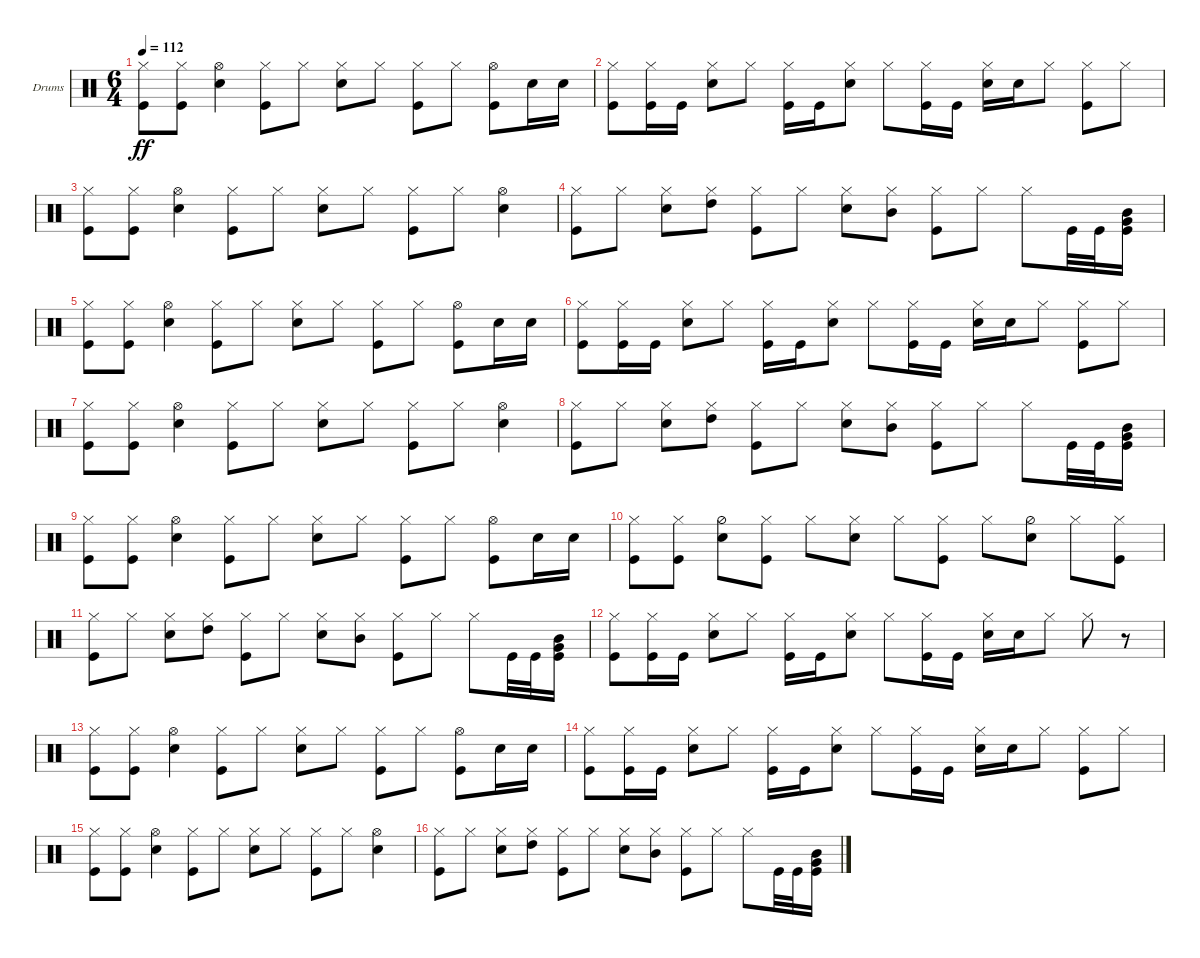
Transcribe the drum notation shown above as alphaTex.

\defaultSystemsLayout 4
\bracketExtendMode groupsimilarinstruments
\firstSystemTrackNameOrientation horizontal
\otherSystemsTrackNameOrientation horizontal
\track ("Kaleb - Drums" "Drums") {instrument percussion}
\staff {score}
\articulation defaults
\ts (6 4)
\tempo 112
\clef neutral
\ks c
("Hi-Hat (closed)" "Kick (hit)").8{dy ff} ("Hi-Hat (closed)" "Kick (hit)").8 ("Hi-Hat (open)" "Snare (hit) 2").4 ("Hi-Hat (closed)" "Kick (hit)").8 "Hi-Hat (closed)".8 ("Hi-Hat (closed)" "Snare (hit) 2").8 "Hi-Hat (closed)".8 ("Hi-Hat (closed)" "Kick (hit)").8 "Hi-Hat (closed)".8 ("Kick (hit)" "Hi-Hat (open)").8 "Snare (hit) 2".16 "Snare (hit) 2".16 |
("Kick (hit)" "Hi-Hat (closed)").8 ("Kick (hit)" "Hi-Hat (closed)").16 "Kick (hit)".16 ("Snare (hit) 2" "Hi-Hat (closed)").8 "Hi-Hat (closed)".8 ("Hi-Hat (closed)" "Kick (hit)").16 "Kick (hit)".16 ("Hi-Hat (closed)" "Snare (hit) 2").8 "Hi-Hat (closed)".8 ("Hi-Hat (closed)" "Kick (hit)").16 "Kick (hit)".16 ("Hi-Hat (closed)" "Snare (hit) 2").16 "Snare (hit) 2".16 "Hi-Hat (closed)".8 ("Hi-Hat (closed)" "Kick (hit)").8 "Hi-Hat (closed)".8 |
("Hi-Hat (closed)" "Kick (hit)").8 ("Hi-Hat (closed)" "Kick (hit)").8 ("Hi-Hat (open)" "Snare (hit) 2").4 ("Hi-Hat (closed)" "Kick (hit)").8 "Hi-Hat (closed)".8 ("Hi-Hat (closed)" "Snare (hit) 2").8 "Hi-Hat (closed)".8 ("Hi-Hat (closed)" "Kick (hit)").8 "Hi-Hat (closed)".8 ("Hi-Hat (open)" "Snare (hit) 2").4 |
("Kick (hit)" "Hi-Hat (closed)").8 "Hi-Hat (closed)".8 ("Hi-Hat (closed)" "Snare (hit) 2").8 ("Hi-Hat (closed)" "High Tom (hit)").8 ("Hi-Hat (closed)" "Kick (hit)").8 "Hi-Hat (closed)".8 ("Hi-Hat (closed)" "Snare (hit) 2").8 ("Hi-Hat (closed)" "Mid Tom (hit)").8 ("Hi-Hat (closed)" "Kick (hit)").8 "Hi-Hat (closed)".8 "Hi-Hat (closed)".8 "Kick (hit)".32 "Kick (hit)".32 ("Mid Tom (hit)" "Very Low Tom (hit)" "Kick (hit)").16 |
("Hi-Hat (closed)" "Kick (hit)").8 ("Hi-Hat (closed)" "Kick (hit)").8 ("Hi-Hat (open)" "Snare (hit) 2").4 ("Hi-Hat (closed)" "Kick (hit)").8 "Hi-Hat (closed)".8 ("Hi-Hat (closed)" "Snare (hit) 2").8 "Hi-Hat (closed)".8 ("Hi-Hat (closed)" "Kick (hit)").8 "Hi-Hat (closed)".8 ("Kick (hit)" "Hi-Hat (open)").8 "Snare (hit) 2".16 "Snare (hit) 2".16 |
("Kick (hit)" "Hi-Hat (closed)").8 ("Kick (hit)" "Hi-Hat (closed)").16 "Kick (hit)".16 ("Snare (hit) 2" "Hi-Hat (closed)").8 "Hi-Hat (closed)".8 ("Hi-Hat (closed)" "Kick (hit)").16 "Kick (hit)".16 ("Hi-Hat (closed)" "Snare (hit) 2").8 "Hi-Hat (closed)".8 ("Hi-Hat (closed)" "Kick (hit)").16 "Kick (hit)".16 ("Hi-Hat (closed)" "Snare (hit) 2").16 "Snare (hit) 2".16 "Hi-Hat (closed)".8 ("Hi-Hat (closed)" "Kick (hit)").8 "Hi-Hat (closed)".8 |
("Hi-Hat (closed)" "Kick (hit)").8 ("Hi-Hat (closed)" "Kick (hit)").8 ("Hi-Hat (open)" "Snare (hit) 2").4 ("Hi-Hat (closed)" "Kick (hit)").8 "Hi-Hat (closed)".8 ("Hi-Hat (closed)" "Snare (hit) 2").8 "Hi-Hat (closed)".8 ("Hi-Hat (closed)" "Kick (hit)").8 "Hi-Hat (closed)".8 ("Hi-Hat (open)" "Snare (hit) 2").4 |
("Kick (hit)" "Hi-Hat (closed)").8 "Hi-Hat (closed)".8 ("Hi-Hat (closed)" "Snare (hit) 2").8 ("Hi-Hat (closed)" "High Tom (hit)").8 ("Hi-Hat (closed)" "Kick (hit)").8 "Hi-Hat (closed)".8 ("Hi-Hat (closed)" "Snare (hit) 2").8 ("Hi-Hat (closed)" "Mid Tom (hit)").8 ("Hi-Hat (closed)" "Kick (hit)").8 "Hi-Hat (closed)".8 "Hi-Hat (closed)".8 "Kick (hit)".32 "Kick (hit)".32 ("Mid Tom (hit)" "Very Low Tom (hit)" "Kick (hit)").16 |
("Hi-Hat (closed)" "Kick (hit)").8 ("Hi-Hat (closed)" "Kick (hit)").8 ("Hi-Hat (open)" "Snare (hit) 2").4 ("Hi-Hat (closed)" "Kick (hit)").8 "Hi-Hat (closed)".8 ("Hi-Hat (closed)" "Snare (hit) 2").8 "Hi-Hat (closed)".8 ("Hi-Hat (closed)" "Kick (hit)").8 "Hi-Hat (closed)".8 ("Kick (hit)" "Hi-Hat (open)").8 "Snare (hit) 2".16 "Snare (hit) 2".16 |
("Hi-Hat (closed)" "Kick (hit)").8 ("Hi-Hat (closed)" "Kick (hit)").8 ("Hi-Hat (half)" "Snare (hit) 2").8 ("Hi-Hat (closed)" "Kick (hit)").8 "Hi-Hat (closed)".8 ("Hi-Hat (closed)" "Snare (hit) 2").8 "Hi-Hat (closed)".8 ("Hi-Hat (closed)" "Kick (hit)").8 "Hi-Hat (closed)".8 ("Hi-Hat (half)" "Snare (hit) 2").8 "Hi-Hat (closed)".8 ("Hi-Hat (closed)" "Kick (hit)").8 |
("Kick (hit)" "Hi-Hat (closed)").8 "Hi-Hat (closed)".8 ("Hi-Hat (closed)" "Snare (hit) 2").8 ("Hi-Hat (closed)" "High Tom (hit)").8 ("Hi-Hat (closed)" "Kick (hit)").8 "Hi-Hat (closed)".8 ("Hi-Hat (closed)" "Snare (hit) 2").8 ("Hi-Hat (closed)" "Mid Tom (hit)").8 ("Hi-Hat (closed)" "Kick (hit)").8 "Hi-Hat (closed)".8 "Hi-Hat (closed)".8 "Kick (hit)".32 "Kick (hit)".32 ("Mid Tom (hit)" "Very Low Tom (hit)" "Kick (hit)").16 |
("Kick (hit)" "Hi-Hat (closed)").8 ("Kick (hit)" "Hi-Hat (closed)").16 "Kick (hit)".16 ("Snare (hit) 2" "Hi-Hat (closed)").8 "Hi-Hat (closed)".8 ("Hi-Hat (closed)" "Kick (hit)").16 "Kick (hit)".16 ("Hi-Hat (closed)" "Snare (hit) 2").8 "Hi-Hat (closed)".8 ("Hi-Hat (closed)" "Kick (hit)").16 "Kick (hit)".16 ("Hi-Hat (closed)" "Snare (hit) 2").16 "Snare (hit) 2".16 "Hi-Hat (closed)".8 "Hi-Hat (closed)".8 r.8 |
("Hi-Hat (closed)" "Kick (hit)").8 ("Hi-Hat (closed)" "Kick (hit)").8 ("Hi-Hat (open)" "Snare (hit) 2").4 ("Hi-Hat (closed)" "Kick (hit)").8 "Hi-Hat (closed)".8 ("Hi-Hat (closed)" "Snare (hit) 2").8 "Hi-Hat (closed)".8 ("Hi-Hat (closed)" "Kick (hit)").8 "Hi-Hat (closed)".8 ("Kick (hit)" "Hi-Hat (open)").8 "Snare (hit) 2".16 "Snare (hit) 2".16 |
("Kick (hit)" "Hi-Hat (closed)").8 ("Kick (hit)" "Hi-Hat (closed)").16 "Kick (hit)".16 ("Snare (hit) 2" "Hi-Hat (closed)").8 "Hi-Hat (closed)".8 ("Hi-Hat (closed)" "Kick (hit)").16 "Kick (hit)".16 ("Hi-Hat (closed)" "Snare (hit) 2").8 "Hi-Hat (closed)".8 ("Hi-Hat (closed)" "Kick (hit)").16 "Kick (hit)".16 ("Hi-Hat (closed)" "Snare (hit) 2").16 "Snare (hit) 2".16 "Hi-Hat (closed)".8 ("Hi-Hat (closed)" "Kick (hit)").8 "Hi-Hat (closed)".8 |
("Hi-Hat (closed)" "Kick (hit)").8 ("Hi-Hat (closed)" "Kick (hit)").8 ("Hi-Hat (open)" "Snare (hit) 2").4 ("Hi-Hat (closed)" "Kick (hit)").8 "Hi-Hat (closed)".8 ("Hi-Hat (closed)" "Snare (hit) 2").8 "Hi-Hat (closed)".8 ("Hi-Hat (closed)" "Kick (hit)").8 "Hi-Hat (closed)".8 ("Hi-Hat (open)" "Snare (hit) 2").4 |
("Kick (hit)" "Hi-Hat (closed)").8 "Hi-Hat (closed)".8 ("Hi-Hat (closed)" "Snare (hit) 2").8 ("Hi-Hat (closed)" "High Tom (hit)").8 ("Hi-Hat (closed)" "Kick (hit)").8 "Hi-Hat (closed)".8 ("Hi-Hat (closed)" "Snare (hit) 2").8 ("Hi-Hat (closed)" "Mid Tom (hit)").8 ("Hi-Hat (closed)" "Kick (hit)").8 "Hi-Hat (closed)".8 "Hi-Hat (closed)".8 "Kick (hit)".32 "Kick (hit)".32 ("Mid Tom (hit)" "Very Low Tom (hit)" "Kick (hit)").16
